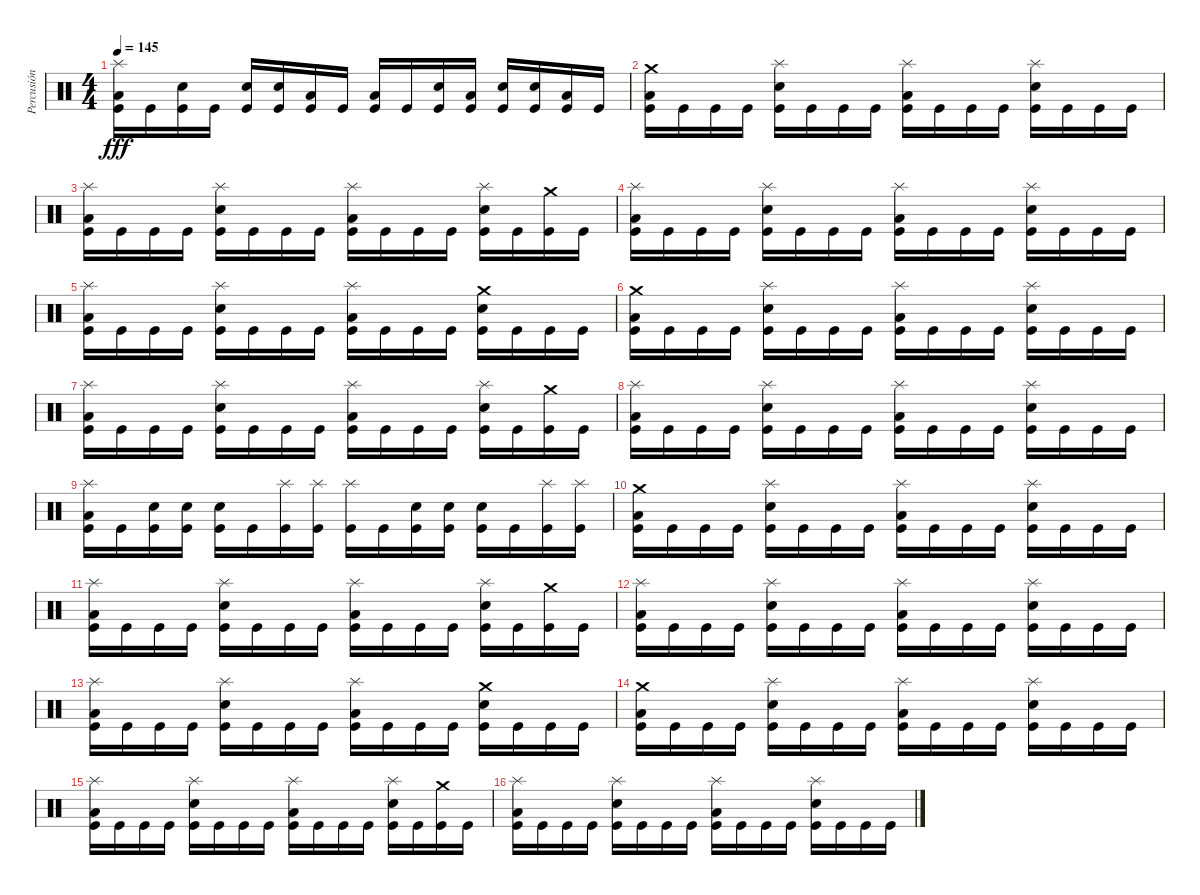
\track ("Percusión" "Percusión") {instrument percussion}
\staff {score}
\articulation defaults
\ts (4 4)
\tempo 145
\clef neutral
\ks c
("Splash (hit)" "Low Floor Tom (hit)" "Kick (hit)").16{dy fff} "Kick (hit)".16 ("Snare (hit) 2" "Kick (hit)").16 "Kick (hit)".16 ("Snare (hit) 2" "Kick (hit)").16 ("Snare (hit) 2" "Kick (hit)").16 ("Low Floor Tom (hit)" "Kick (hit)").16 "Kick (hit)".16 ("Low Floor Tom (hit)" "Kick (hit)").16 "Kick (hit)".16 ("Snare (hit) 2" "Kick (hit)").16 ("Low Floor Tom (hit)" "Kick (hit)").16 ("Snare (hit) 2" "Kick (hit)").16 ("Snare (hit) 2" "Kick (hit)").16 ("Low Floor Tom (hit)" "Kick (hit)").16 "Kick (hit)".16 |
("Crash medium (hit)" "Low Floor Tom (hit)" "Kick (hit)").16 "Kick (hit)".16 "Kick (hit)".16 "Kick (hit)".16 ("Splash (hit)" "Snare (hit) 2" "Kick (hit)").16 "Kick (hit)".16 "Kick (hit)".16 "Kick (hit)".16 ("Splash (hit)" "Low Floor Tom (hit)" "Kick (hit)").16 "Kick (hit)".16 "Kick (hit)".16 "Kick (hit)".16 ("Splash (hit)" "Snare (hit) 2" "Kick (hit)").16 "Kick (hit)".16 "Kick (hit)".16 "Kick (hit)".16 |
("Splash (hit)" "Low Floor Tom (hit)" "Kick (hit)").16 "Kick (hit)".16 "Kick (hit)".16 "Kick (hit)".16 ("Splash (hit)" "Snare (hit) 2" "Kick (hit)").16 "Kick (hit)".16 "Kick (hit)".16 "Kick (hit)".16 ("Splash (hit)" "Low Floor Tom (hit)" "Kick (hit)").16 "Kick (hit)".16 "Kick (hit)".16 "Kick (hit)".16 ("Splash (hit)" "Snare (hit) 2" "Kick (hit)").16 "Kick (hit)".16 ("Crash medium (hit)" "Kick (hit)").16 "Kick (hit)".16 |
("Splash (hit)" "Low Floor Tom (hit)" "Kick (hit)").16 "Kick (hit)".16 "Kick (hit)".16 "Kick (hit)".16 ("Splash (hit)" "Snare (hit) 2" "Kick (hit)").16 "Kick (hit)".16 "Kick (hit)".16 "Kick (hit)".16 ("Splash (hit)" "Low Floor Tom (hit)" "Kick (hit)").16 "Kick (hit)".16 "Kick (hit)".16 "Kick (hit)".16 ("Splash (hit)" "Snare (hit) 2" "Kick (hit)").16 "Kick (hit)".16 "Kick (hit)".16 "Kick (hit)".16 |
("Splash (hit)" "Low Floor Tom (hit)" "Kick (hit)").16 "Kick (hit)".16 "Kick (hit)".16 "Kick (hit)".16 ("Splash (hit)" "Snare (hit) 2" "Kick (hit)").16 "Kick (hit)".16 "Kick (hit)".16 "Kick (hit)".16 ("Splash (hit)" "Low Floor Tom (hit)" "Kick (hit)").16 "Kick (hit)".16 "Kick (hit)".16 "Kick (hit)".16 ("Crash medium (hit)" "Snare (hit) 2" "Kick (hit)").16 "Kick (hit)".16 "Kick (hit)".16 "Kick (hit)".16 |
("Crash medium (hit)" "Low Floor Tom (hit)" "Kick (hit)").16 "Kick (hit)".16 "Kick (hit)".16 "Kick (hit)".16 ("Splash (hit)" "Snare (hit) 2" "Kick (hit)").16 "Kick (hit)".16 "Kick (hit)".16 "Kick (hit)".16 ("Splash (hit)" "Low Floor Tom (hit)" "Kick (hit)").16 "Kick (hit)".16 "Kick (hit)".16 "Kick (hit)".16 ("Splash (hit)" "Snare (hit) 2" "Kick (hit)").16 "Kick (hit)".16 "Kick (hit)".16 "Kick (hit)".16 |
("Splash (hit)" "Low Floor Tom (hit)" "Kick (hit)").16 "Kick (hit)".16 "Kick (hit)".16 "Kick (hit)".16 ("Splash (hit)" "Snare (hit) 2" "Kick (hit)").16 "Kick (hit)".16 "Kick (hit)".16 "Kick (hit)".16 ("Splash (hit)" "Low Floor Tom (hit)" "Kick (hit)").16 "Kick (hit)".16 "Kick (hit)".16 "Kick (hit)".16 ("Splash (hit)" "Snare (hit) 2" "Kick (hit)").16 "Kick (hit)".16 ("Crash medium (hit)" "Kick (hit)").16 "Kick (hit)".16 |
("Splash (hit)" "Low Floor Tom (hit)" "Kick (hit)").16 "Kick (hit)".16 "Kick (hit)".16 "Kick (hit)".16 ("Splash (hit)" "Snare (hit) 2" "Kick (hit)").16 "Kick (hit)".16 "Kick (hit)".16 "Kick (hit)".16 ("Splash (hit)" "Low Floor Tom (hit)" "Kick (hit)").16 "Kick (hit)".16 "Kick (hit)".16 "Kick (hit)".16 ("Splash (hit)" "Snare (hit) 2" "Kick (hit)").16 "Kick (hit)".16 "Kick (hit)".16 "Kick (hit)".16 |
("Splash (hit)" "Low Floor Tom (hit)" "Kick (hit)").16 "Kick (hit)".16 ("Snare (hit) 2" "Kick (hit)").16 ("Snare (hit) 2" "Kick (hit)").16 ("Snare (hit) 2" "Kick (hit)").16 "Kick (hit)".16 ("Splash (hit)" "Kick (hit)").16 ("Splash (hit)" "Kick (hit)").16 ("Splash (hit)" "Kick (hit)").16 "Kick (hit)".16 ("Snare (hit) 2" "Kick (hit)").16 ("Snare (hit) 2" "Kick (hit)").16 ("Snare (hit) 2" "Kick (hit)").16 "Kick (hit)".16 ("Splash (hit)" "Kick (hit)").16 ("Splash (hit)" "Kick (hit)").16 |
("Crash medium (hit)" "Low Floor Tom (hit)" "Kick (hit)").16 "Kick (hit)".16 "Kick (hit)".16 "Kick (hit)".16 ("Splash (hit)" "Snare (hit) 2" "Kick (hit)").16 "Kick (hit)".16 "Kick (hit)".16 "Kick (hit)".16 ("Splash (hit)" "Low Floor Tom (hit)" "Kick (hit)").16 "Kick (hit)".16 "Kick (hit)".16 "Kick (hit)".16 ("Splash (hit)" "Snare (hit) 2" "Kick (hit)").16 "Kick (hit)".16 "Kick (hit)".16 "Kick (hit)".16 |
("Splash (hit)" "Low Floor Tom (hit)" "Kick (hit)").16 "Kick (hit)".16 "Kick (hit)".16 "Kick (hit)".16 ("Splash (hit)" "Snare (hit) 2" "Kick (hit)").16 "Kick (hit)".16 "Kick (hit)".16 "Kick (hit)".16 ("Splash (hit)" "Low Floor Tom (hit)" "Kick (hit)").16 "Kick (hit)".16 "Kick (hit)".16 "Kick (hit)".16 ("Splash (hit)" "Snare (hit) 2" "Kick (hit)").16 "Kick (hit)".16 ("Crash medium (hit)" "Kick (hit)").16 "Kick (hit)".16 |
("Splash (hit)" "Low Floor Tom (hit)" "Kick (hit)").16 "Kick (hit)".16 "Kick (hit)".16 "Kick (hit)".16 ("Splash (hit)" "Snare (hit) 2" "Kick (hit)").16 "Kick (hit)".16 "Kick (hit)".16 "Kick (hit)".16 ("Splash (hit)" "Low Floor Tom (hit)" "Kick (hit)").16 "Kick (hit)".16 "Kick (hit)".16 "Kick (hit)".16 ("Splash (hit)" "Snare (hit) 2" "Kick (hit)").16 "Kick (hit)".16 "Kick (hit)".16 "Kick (hit)".16 |
("Splash (hit)" "Low Floor Tom (hit)" "Kick (hit)").16 "Kick (hit)".16 "Kick (hit)".16 "Kick (hit)".16 ("Splash (hit)" "Snare (hit) 2" "Kick (hit)").16 "Kick (hit)".16 "Kick (hit)".16 "Kick (hit)".16 ("Splash (hit)" "Low Floor Tom (hit)" "Kick (hit)").16 "Kick (hit)".16 "Kick (hit)".16 "Kick (hit)".16 ("Crash medium (hit)" "Snare (hit) 2" "Kick (hit)").16 "Kick (hit)".16 "Kick (hit)".16 "Kick (hit)".16 |
("Crash medium (hit)" "Low Floor Tom (hit)" "Kick (hit)").16 "Kick (hit)".16 "Kick (hit)".16 "Kick (hit)".16 ("Splash (hit)" "Snare (hit) 2" "Kick (hit)").16 "Kick (hit)".16 "Kick (hit)".16 "Kick (hit)".16 ("Splash (hit)" "Low Floor Tom (hit)" "Kick (hit)").16 "Kick (hit)".16 "Kick (hit)".16 "Kick (hit)".16 ("Splash (hit)" "Snare (hit) 2" "Kick (hit)").16 "Kick (hit)".16 "Kick (hit)".16 "Kick (hit)".16 |
("Splash (hit)" "Low Floor Tom (hit)" "Kick (hit)").16 "Kick (hit)".16 "Kick (hit)".16 "Kick (hit)".16 ("Splash (hit)" "Snare (hit) 2" "Kick (hit)").16 "Kick (hit)".16 "Kick (hit)".16 "Kick (hit)".16 ("Splash (hit)" "Low Floor Tom (hit)" "Kick (hit)").16 "Kick (hit)".16 "Kick (hit)".16 "Kick (hit)".16 ("Splash (hit)" "Snare (hit) 2" "Kick (hit)").16 "Kick (hit)".16 ("Crash medium (hit)" "Kick (hit)").16 "Kick (hit)".16 |
("Splash (hit)" "Low Floor Tom (hit)" "Kick (hit)").16 "Kick (hit)".16 "Kick (hit)".16 "Kick (hit)".16 ("Splash (hit)" "Snare (hit) 2" "Kick (hit)").16 "Kick (hit)".16 "Kick (hit)".16 "Kick (hit)".16 ("Splash (hit)" "Low Floor Tom (hit)" "Kick (hit)").16 "Kick (hit)".16 "Kick (hit)".16 "Kick (hit)".16 ("Splash (hit)" "Snare (hit) 2" "Kick (hit)").16 "Kick (hit)".16 "Kick (hit)".16 "Kick (hit)".16
